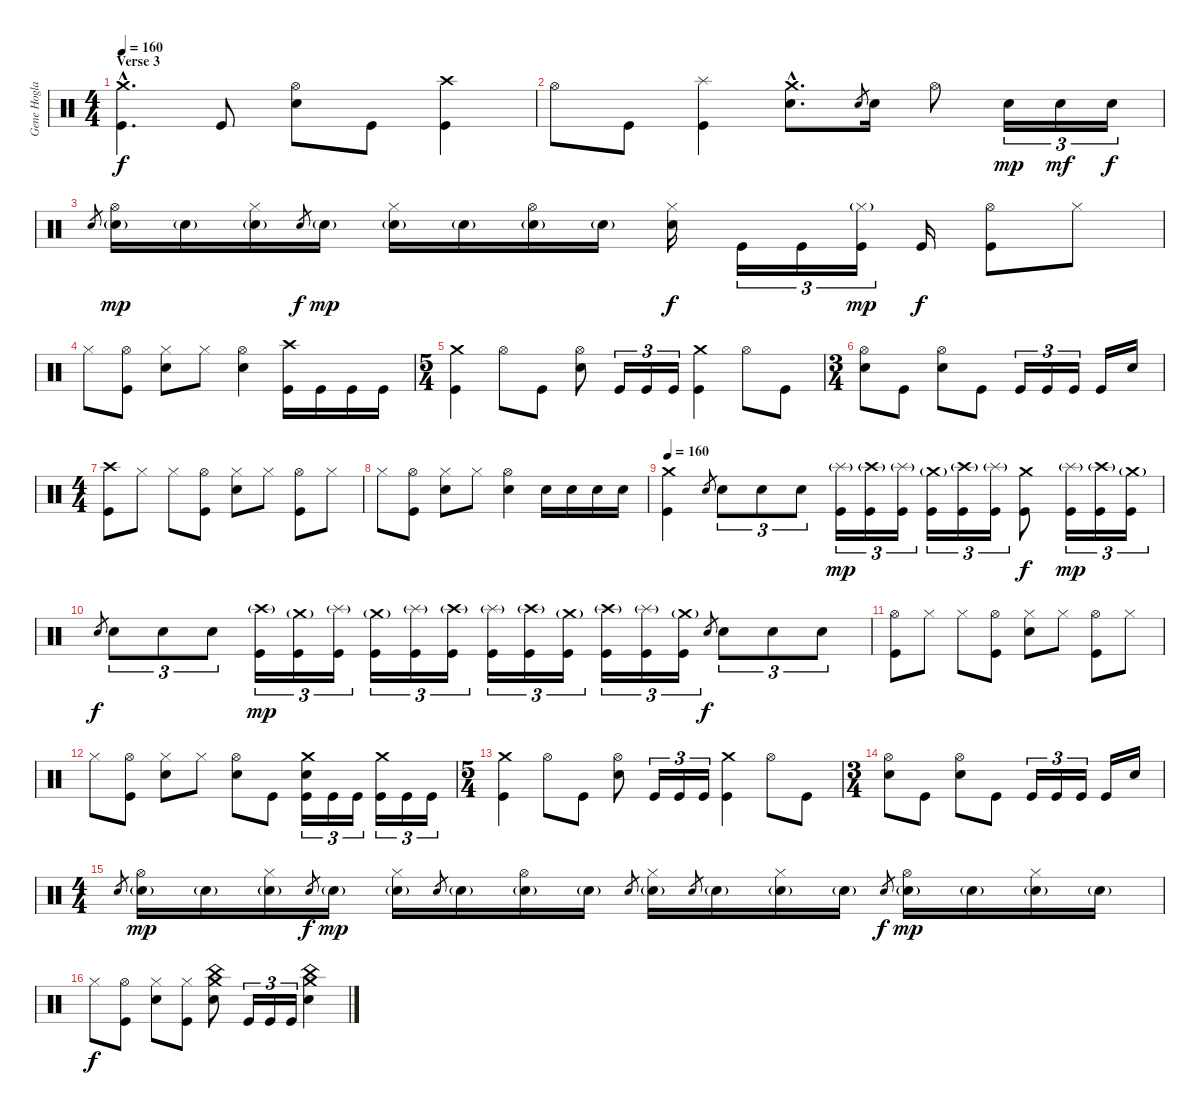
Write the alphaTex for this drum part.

\track ("Gene Hoglan" "Gene Hogla") {instrument percussion}
\staff {score}
\articulation defaults
\ts (4 4)
\section ("" "Verse 3")
\tempo 160
\clef neutral
\ks c
("Crash medium (hit)"{hac} "Kick (hit)"{hac}).4{d dy f} "Kick (hit)".8 ("Hi-Hat (open)" "Electric Snare (hit)").8 "Kick (hit)".8 ("Crash high (hit)" "Kick (hit)").4 |
"Hi-Hat (open)".8 "Kick (hit)".8 ("Splash (hit)" "Kick (hit)").4 ("Crash medium (hit)"{hac} "Electric Snare (hit)"{hac}).8{d} "Electric Snare (hit)".8{gr} "Electric Snare (hit)".16 "Hi-Hat (open)".8 "Electric Snare (hit)".16{tu (3 2) dy mp} "Electric Snare (hit)".16{tu (3 2) dy mf} "Electric Snare (hit)".16{tu (3 2) dy f} |
"Electric Snare (hit)".8{gr} ("Hi-Hat (open)" "Electric Snare (hit)"{g}).16{dy mp} "Electric Snare (hit)"{g}.16 ("Hi-Hat (closed)" "Electric Snare (hit)"{g}).16 "Electric Snare (hit)".8{gr dy f} "Electric Snare (hit)"{g}.16{dy mp} ("Hi-Hat (closed)" "Electric Snare (hit)"{g}).16 "Electric Snare (hit)"{g}.16 ("Hi-Hat (open)" "Electric Snare (hit)"{g}).16 "Electric Snare (hit)"{g}.16 ("Hi-Hat (closed)" "Electric Snare (hit)").16{dy f} "Kick (hit)".16{tu (3 2)} "Kick (hit)".16{tu (3 2)} ("Hi-Hat (closed)"{g} "Kick (hit)").16{tu (3 2) dy mp} "Kick (hit)".16{dy f} ("Hi-Hat (open)" "Kick (hit)").8 "Hi-Hat (closed)".8 |
"Hi-Hat (closed)".8 ("Hi-Hat (open)" "Kick (hit)").8 ("Hi-Hat (closed)" "Electric Snare (hit)").8 "Hi-Hat (closed)".8 ("Hi-Hat (open)" "Electric Snare (hit)").4 ("Crash high (hit)" "Kick (hit)").16 "Kick (hit)".16 "Kick (hit)".16 "Kick (hit)".16 |
\ts (5 4)
("Crash medium (hit)" "Kick (hit)").4 "Hi-Hat (open)".8 "Kick (hit)".8 ("Hi-Hat (open)" "Electric Snare (hit)").8 "Kick (hit)".16{tu (3 2)} "Kick (hit)".16{tu (3 2)} "Kick (hit)".16{tu (3 2)} ("Crash medium (hit)" "Kick (hit)").4 "Hi-Hat (open)".8 "Kick (hit)".8 |
\ts (3 4)
("Hi-Hat (open)" "Electric Snare (hit)").8 "Kick (hit)".8 ("Hi-Hat (open)" "Electric Snare (hit)").8 "Kick (hit)".8 "Kick (hit)".16{tu (3 2)} "Kick (hit)".16{tu (3 2)} "Kick (hit)".16{tu (3 2)} "Kick (hit)".16 "Electric Snare (hit)".16 |
\ts (4 4)
("Crash high (hit)" "Kick (hit)").8 "Hi-Hat (closed)".8 "Hi-Hat (closed)".8 ("Hi-Hat (open)" "Kick (hit)").8 ("Hi-Hat (closed)" "Electric Snare (hit)").8 "Hi-Hat (closed)".8 ("Hi-Hat (open)" "Kick (hit)").8 "Hi-Hat (closed)".8 |
"Hi-Hat (closed)".8 ("Hi-Hat (open)" "Kick (hit)").8 ("Hi-Hat (closed)" "Electric Snare (hit)").8 "Hi-Hat (closed)".8 ("Hi-Hat (open)" "Electric Snare (hit)").4 "Electric Snare (hit)".16 "Electric Snare (hit)".16 "Electric Snare (hit)".16 "Electric Snare (hit)".16 |
\tempo 160
("Crash medium (hit)" "Kick (hit)").4 "Electric Snare (hit)".8{gr} "Electric Snare (hit)".8{tu (3 2)} "Electric Snare (hit)".8{tu (3 2)} "Electric Snare (hit)".8{tu (3 2)} ("Splash (hit)"{g} "Kick (hit)").16{tu (3 2) dy mp} ("Crash high (hit)"{g} "Kick (hit)").16{tu (3 2)} ("Splash (hit)"{g} "Kick (hit)").16{tu (3 2)} ("Crash medium (hit)"{g} "Kick (hit)").16{tu (3 2)} ("Crash high (hit)"{g} "Kick (hit)").16{tu (3 2)} ("Splash (hit)"{g} "Kick (hit)").16{tu (3 2)} ("Crash medium (hit)" "Kick (hit)").8{dy f} ("Splash (hit)"{g} "Kick (hit)").16{tu (3 2) dy mp} ("Crash high (hit)"{g} "Kick (hit)").16{tu (3 2)} ("Crash medium (hit)"{g} "Kick (hit)").16{tu (3 2)} |
"Electric Snare (hit)".8{gr dy f} "Electric Snare (hit)".8{tu (3 2)} "Electric Snare (hit)".8{tu (3 2)} "Electric Snare (hit)".8{tu (3 2)} ("Crash high (hit)"{g} "Kick (hit)").16{tu (3 2) dy mp} ("Crash medium (hit)"{g} "Kick (hit)").16{tu (3 2)} ("Splash (hit)"{g} "Kick (hit)").16{tu (3 2)} ("Crash medium (hit)"{g} "Kick (hit)").16{tu (3 2)} ("Splash (hit)"{g} "Kick (hit)").16{tu (3 2)} ("Crash high (hit)"{g} "Kick (hit)").16{tu (3 2)} ("Splash (hit)"{g} "Kick (hit)").16{tu (3 2)} ("Crash high (hit)"{g} "Kick (hit)").16{tu (3 2)} ("Crash medium (hit)"{g} "Kick (hit)").16{tu (3 2)} ("Crash high (hit)"{g} "Kick (hit)").16{tu (3 2)} ("Splash (hit)"{g} "Kick (hit)").16{tu (3 2)} ("Crash medium (hit)"{g} "Kick (hit)").16{tu (3 2)} "Electric Snare (hit)".8{gr dy f} "Electric Snare (hit)".8{tu (3 2)} "Electric Snare (hit)".8{tu (3 2)} "Electric Snare (hit)".8{tu (3 2)} |
("Hi-Hat (open)" "Kick (hit)").8 "Hi-Hat (closed)".8 "Hi-Hat (closed)".8 ("Hi-Hat (open)" "Kick (hit)").8 ("Hi-Hat (closed)" "Electric Snare (hit)").8 "Hi-Hat (closed)".8 ("Hi-Hat (open)" "Kick (hit)").8 "Hi-Hat (closed)".8 |
"Hi-Hat (closed)".8 ("Hi-Hat (open)" "Kick (hit)").8 ("Hi-Hat (closed)" "Electric Snare (hit)").8 "Hi-Hat (closed)".8 ("Hi-Hat (open)" "Electric Snare (hit)").8 "Kick (hit)".8 ("Crash medium (hit)" "Electric Snare (hit)" "Kick (hit)").16{tu (3 2)} "Kick (hit)".16{tu (3 2)} "Kick (hit)".16{tu (3 2)} ("Crash medium (hit)" "Kick (hit)").16{tu (3 2)} "Kick (hit)".16{tu (3 2)} "Kick (hit)".16{tu (3 2)} |
\ts (5 4)
("Crash medium (hit)" "Kick (hit)").4 "Hi-Hat (open)".8 "Kick (hit)".8 ("Hi-Hat (open)" "Electric Snare (hit)").8 "Kick (hit)".16{tu (3 2)} "Kick (hit)".16{tu (3 2)} "Kick (hit)".16{tu (3 2)} ("Crash medium (hit)" "Kick (hit)").4 "Hi-Hat (open)".8 "Kick (hit)".8 |
\ts (3 4)
("Hi-Hat (open)" "Electric Snare (hit)").8 "Kick (hit)".8 ("Hi-Hat (open)" "Electric Snare (hit)").8 "Kick (hit)".8 "Kick (hit)".16{tu (3 2)} "Kick (hit)".16{tu (3 2)} "Kick (hit)".16{tu (3 2)} "Kick (hit)".16 "Electric Snare (hit)".16 |
\ts (4 4)
"Electric Snare (hit)".8{gr} ("Hi-Hat (open)" "Electric Snare (hit)"{g}).16{dy mp} "Electric Snare (hit)"{g}.16 ("Hi-Hat (closed)" "Electric Snare (hit)"{g}).16 "Electric Snare (hit)".8{gr dy f} "Electric Snare (hit)"{g}.16{dy mp} ("Hi-Hat (closed)" "Electric Snare (hit)"{g}).16 "Electric Snare (hit)".8{gr} "Electric Snare (hit)"{g}.16 ("Hi-Hat (open)" "Electric Snare (hit)"{g}).16 "Electric Snare (hit)"{g}.16 "Electric Snare (hit)".8{gr} ("Hi-Hat (closed)" "Electric Snare (hit)"{g}).16 "Electric Snare (hit)".8{gr} "Electric Snare (hit)"{g}.16 ("Hi-Hat (closed)" "Electric Snare (hit)"{g}).16 "Electric Snare (hit)"{g}.16 "Electric Snare (hit)".8{gr dy f} ("Hi-Hat (open)" "Electric Snare (hit)"{g}).16{dy mp} "Electric Snare (hit)"{g}.16 ("Hi-Hat (closed)" "Electric Snare (hit)"{g}).16 "Electric Snare (hit)"{g}.16 |
"Hi-Hat (closed)".8{dy f} ("Hi-Hat (open)" "Kick (hit)").8 ("Hi-Hat (closed)" "Electric Snare (hit)").8 ("Hi-Hat (closed)" "Kick (hit)").8 ("Crash medium (hit)" "China (hit)" "Electric Snare (hit)").8 "Kick (hit)".16{tu (3 2)} "Kick (hit)".16{tu (3 2)} "Kick (hit)".16{tu (3 2)} ("Crash medium (hit)" "China (hit)" "Electric Snare (hit)").4
